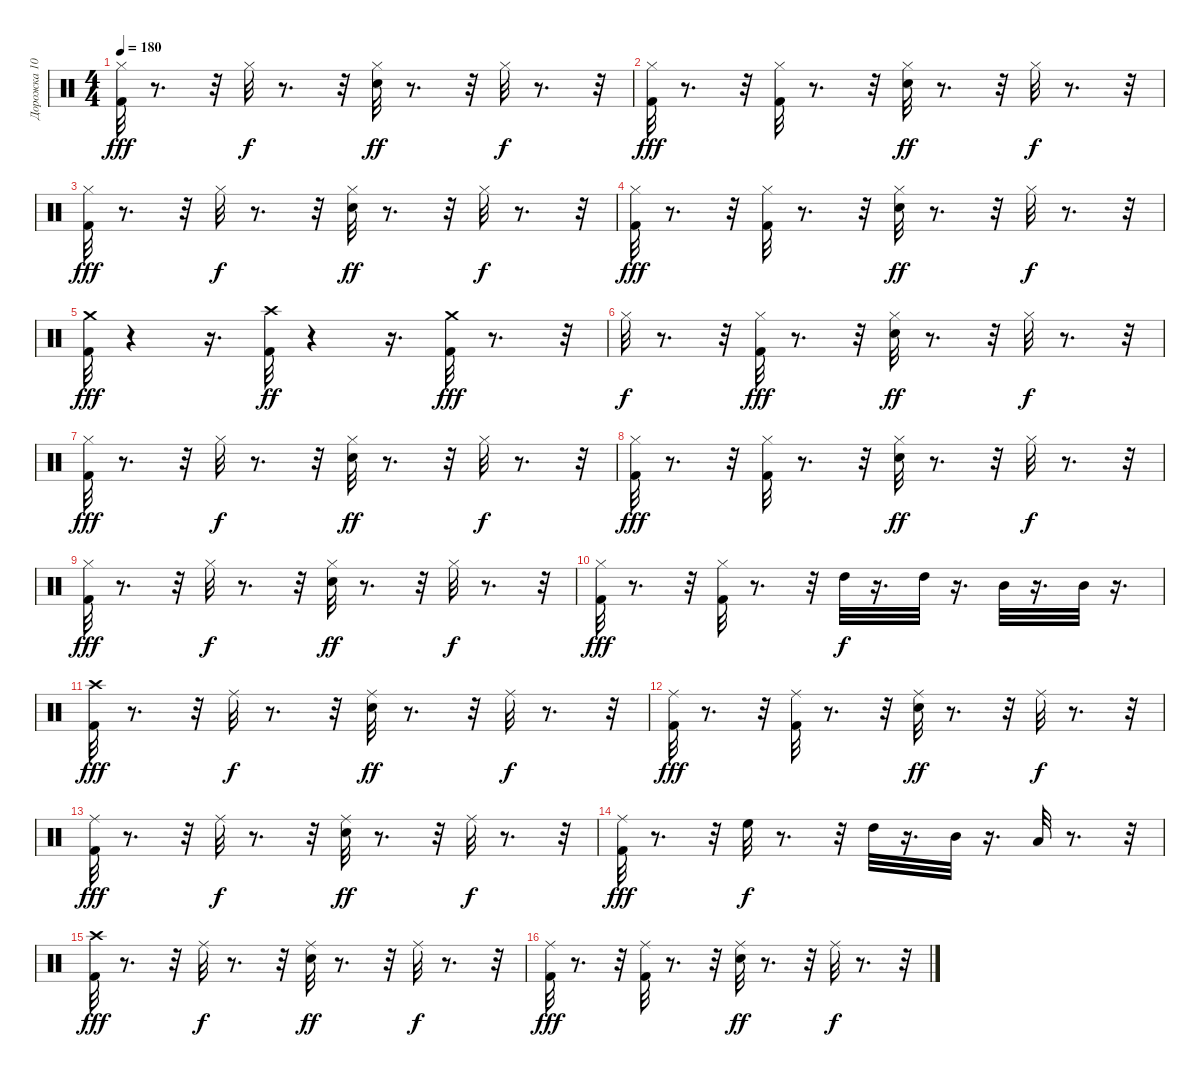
\track ("Дорожка 10" "Дорожка 10") {instrument percussion}
\staff {score}
\articulation defaults
\ts (4 4)
\tempo 180
\clef neutral
\ks c
("Kick (hit) 2" "Hi-Hat (closed)").32{dy fff} r.8{d} r.32 "Hi-Hat (closed)".32{dy f} r.8{d} r.32 ("Snare (hit) 2" "Hi-Hat (closed)").32{dy ff} r.8{d} r.32 "Hi-Hat (closed)".32{dy f} r.8{d} r.32 |
("Hi-Hat (closed)" "Kick (hit) 2").32{dy fff} r.8{d} r.32 ("Kick (hit) 2" "Hi-Hat (closed)").32 r.8{d} r.32 ("Snare (hit) 2" "Hi-Hat (closed)").32{dy ff} r.8{d} r.32 "Hi-Hat (closed)".32{dy f} r.8{d} r.32 |
("Kick (hit) 2" "Hi-Hat (closed)").32{dy fff} r.8{d} r.32 "Hi-Hat (closed)".32{dy f} r.8{d} r.32 ("Snare (hit) 2" "Hi-Hat (closed)").32{dy ff} r.8{d} r.32 "Hi-Hat (closed)".32{dy f} r.8{d} r.32 |
("Hi-Hat (closed)" "Kick (hit) 2").32{dy fff} r.8{d} r.32 ("Kick (hit) 2" "Hi-Hat (closed)").32 r.8{d} r.32 ("Snare (hit) 2" "Hi-Hat (closed)").32{dy ff} r.8{d} r.32 "Hi-Hat (closed)".32{dy f} r.8{d} r.32 |
("Kick (hit) 2" "Crash medium (hit)").32{dy fff} r.4 r.16{d} ("Kick (hit) 2" "Crash high (hit)").32{dy ff} r.4 r.16{d} ("Kick (hit) 2" "Crash medium (hit)").32{dy fff} r.8{d} r.32 |
"Hi-Hat (closed)".32{dy f} r.8{d} r.32 ("Kick (hit) 2" "Hi-Hat (closed)").32{dy fff} r.8{d} r.32 ("Snare (hit) 2" "Hi-Hat (closed)").32{dy ff} r.8{d} r.32 "Hi-Hat (closed)".32{dy f} r.8{d} r.32 |
("Kick (hit) 2" "Hi-Hat (closed)").32{dy fff} r.8{d} r.32 "Hi-Hat (closed)".32{dy f} r.8{d} r.32 ("Snare (hit) 2" "Hi-Hat (closed)").32{dy ff} r.8{d} r.32 "Hi-Hat (closed)".32{dy f} r.8{d} r.32 |
("Hi-Hat (closed)" "Kick (hit) 2").32{dy fff} r.8{d} r.32 ("Kick (hit) 2" "Hi-Hat (closed)").32 r.8{d} r.32 ("Snare (hit) 2" "Hi-Hat (closed)").32{dy ff} r.8{d} r.32 "Hi-Hat (closed)".32{dy f} r.8{d} r.32 |
("Kick (hit) 2" "Hi-Hat (closed)").32{dy fff} r.8{d} r.32 "Hi-Hat (closed)".32{dy f} r.8{d} r.32 ("Snare (hit) 2" "Hi-Hat (closed)").32{dy ff} r.8{d} r.32 "Hi-Hat (closed)".32{dy f} r.8{d} r.32 |
("Hi-Hat (closed)" "Kick (hit) 2").32{dy fff} r.8{d} r.32 ("Kick (hit) 2" "Hi-Hat (closed)").32 r.8{d} r.32 "High Tom (hit)".32{dy f} r.16{d} "High Tom (hit)".32 r.16{d} "Mid Tom (hit)".32 r.16{d} "Mid Tom (hit)".32 r.16{d} |
("Kick (hit) 2" "Crash high (hit)").32{dy fff} r.8{d} r.32 "Ride (middle)".32{dy f} r.8{d} r.32 ("Snare (hit) 2" "Ride (middle)").32{dy ff} r.8{d} r.32 "Ride (middle)".32{dy f} r.8{d} r.32 |
("Ride (middle)" "Kick (hit) 2").32{dy fff} r.8{d} r.32 ("Kick (hit) 2" "Ride (middle)").32 r.8{d} r.32 ("Snare (hit) 2" "Ride (middle)").32{dy ff} r.8{d} r.32 "Ride (middle)".32{dy f} r.8{d} r.32 |
("Kick (hit) 2" "Ride (middle)").32{dy fff} r.8{d} r.32 "Ride (middle)".32{dy f} r.8{d} r.32 ("Snare (hit) 2" "Ride (middle)").32{dy ff} r.8{d} r.32 "Ride (middle)".32{dy f} r.8{d} r.32 |
("Ride (middle)" "Kick (hit) 2").32{dy fff} r.8{d} r.32 "High Floor Tom (hit)".32{dy f} r.8{d} r.32 "High Tom (hit)".32 r.16{d} "Mid Tom (hit)".32 r.16{d} "Low Tom (hit)".32 r.8{d} r.32 |
("Kick (hit) 2" "Crash high (hit)").32{dy fff} r.8{d} r.32 "Ride (middle)".32{dy f} r.8{d} r.32 ("Snare (hit) 2" "Ride (middle)").32{dy ff} r.8{d} r.32 "Ride (middle)".32{dy f} r.8{d} r.32 |
("Ride (middle)" "Kick (hit) 2").32{dy fff} r.8{d} r.32 ("Kick (hit) 2" "Ride (middle)").32 r.8{d} r.32 ("Snare (hit) 2" "Ride (middle)").32{dy ff} r.8{d} r.32 "Ride (middle)".32{dy f} r.8{d} r.32
